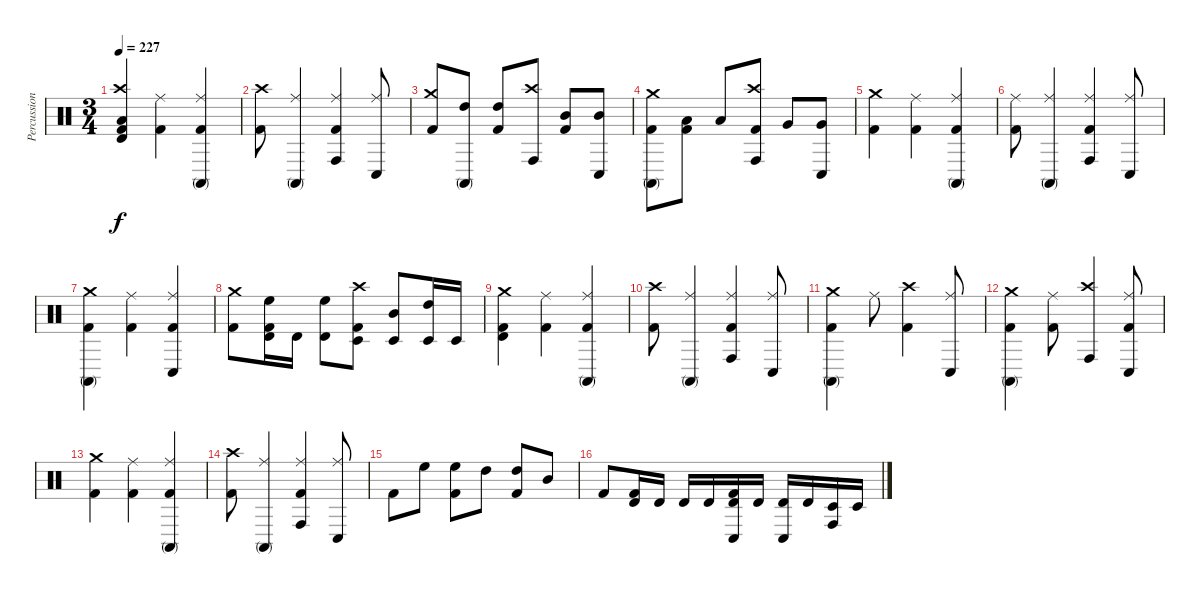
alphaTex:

\track ("Percussion" "Percussion") {instrument percussion}
\staff {score}
\articulation defaults
\ts (3 4)
\tempo 227
\clef neutral
\ks c
("Timbale high (hit)" "Crash high (hit)" "Low Tom (hit)" "Kick (hit) 2").4{dy f} ("Ride (middle)" "Kick (hit) 2").4 ("Ride (middle)" "Conga high (mute)" "Kick (hit) 2").4 |
("Crash high (hit)" "Kick (hit) 2").8 ("Ride (middle)" "Conga high (mute)").4 ("Ride (middle)" "Conga high (hit)" "Kick (hit) 2").4 ("Ride (middle)" "Conga low (hit)").8 |
("Crash medium (hit)" "Kick (hit) 2").8 ("Conga high (mute)" "High Tom (hit)").8 ("High Tom (hit)" "Kick (hit) 2").8 ("Crash high (hit)" "Conga high (hit)").8 ("Mid Tom (hit)" "Kick (hit) 2").8 ("Conga low (hit)" "Mid Tom (hit)").8 |
("Crash medium (hit)" "Conga high (mute)" "Kick (hit) 2").8 ("Low Tom (hit)" "Kick (hit) 2").8 "Low Tom (hit)".8 ("Crash high (hit)" "Conga high (hit)" "Kick (hit) 2").8 "Very Low Tom (hit)".8 ("Conga low (hit)" "Very Low Tom (hit)").8 |
("Crash medium (hit)" "Kick (hit) 2").4 ("Ride (middle)" "Kick (hit) 2").4 ("Ride (middle)" "Conga high (mute)" "Kick (hit) 2").4 |
("Ride (middle)" "Kick (hit) 2").8 ("Ride (middle)" "Conga high (mute)").4 ("Ride (middle)" "Conga high (hit)" "Kick (hit) 2").4 ("Ride (middle)" "Conga low (hit)").8 |
("Crash medium (hit)" "Conga high (mute)" "Kick (hit) 2").4 ("Ride (middle)" "Kick (hit) 2").4 ("Ride (middle)" "Conga low (hit)" "Kick (hit) 2").4 |
("Crash medium (hit)" "Kick (hit) 2").8 ("Timbale high (hit)" "High Floor Tom (hit)" "Kick (hit) 2").16 "Timbale high (hit)".16 ("Timbale high (hit)" "High Floor Tom (hit)").8 ("Timbale low (hit)" "Crash high (hit)" "Kick (hit) 2").8 ("Timbale low (hit)" "Mid Tom (hit)").8 ("Timbale low (hit)" "High Tom (hit)").16 "Timbale low (hit)".16 |
("Crash medium (hit)" "Timbale high (hit)" "Kick (hit) 2").4 ("Ride (middle)" "Kick (hit) 2").4 ("Ride (middle)" "Conga high (mute)" "Kick (hit) 2").4 |
("Crash high (hit)" "Kick (hit) 2").8 ("Ride (middle)" "Conga high (mute)").4 ("Ride (middle)" "Conga high (hit)" "Kick (hit) 2").4 ("Ride (middle)" "Conga low (hit)").8 |
("Crash medium (hit)" "Conga high (mute)" "Kick (hit) 2").4 "Ride (middle)".8 ("Crash high (hit)" "Kick (hit) 2").4 ("Ride (middle)" "Conga low (hit)").8 |
("Crash medium (hit)" "Conga high (mute)" "Kick (hit) 2").4 ("Ride (middle)" "Kick (hit) 2").8 ("Crash high (hit)" "Conga high (hit)").4 ("Ride (middle)" "Conga low (hit)" "Kick (hit) 2").8 |
("Crash medium (hit)" "Kick (hit) 2").4 ("Ride (middle)" "Kick (hit) 2").4 ("Ride (middle)" "Conga high (mute)" "Kick (hit) 2").4 |
("Crash high (hit)" "Kick (hit) 2").8 ("Ride (middle)" "Conga high (mute)").4 ("Ride (middle)" "Conga high (hit)" "Kick (hit) 2").4 ("Ride (middle)" "Conga low (hit)").8 |
"Kick (hit) 2".8 "High Floor Tom (hit)".8 ("High Floor Tom (hit)" "Kick (hit) 2").8 "High Tom (hit)".8 ("High Tom (hit)" "Kick (hit) 2").8 "Mid Tom (hit)".8 |
"Kick (hit) 2".8 ("Timbale high (hit)" "Kick (hit) 2").16 "Timbale high (hit)".16 "Timbale high (hit)".16 "Timbale high (hit)".16 ("Timbale high (hit)" "Conga low (hit)" "Kick (hit) 2").16 "Timbale high (hit)".16 ("Timbale high (hit)" "Conga low (hit)").16 "Timbale high (hit)".16 ("Timbale low (hit)" "Conga high (hit)").16 "Timbale low (hit)".16
